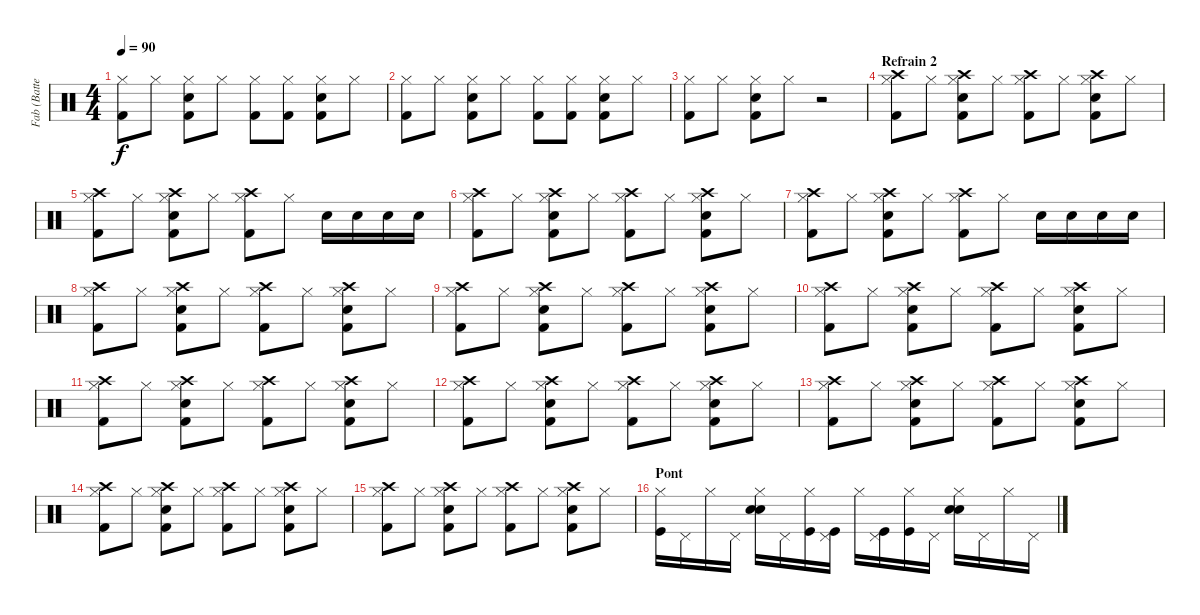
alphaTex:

\track ("Fab (Batterie)" "Fab (Batte") {instrument percussion}
\staff {score}
\articulation defaults
\ts (4 4)
\tempo 90
\clef neutral
\ks c
("Hi-Hat (closed)" "Kick (hit) 2").8{dy f} "Hi-Hat (closed)".8 ("Hi-Hat (closed)" "Snare (hit) 2" "Kick (hit) 2").8 "Hi-Hat (closed)".8 ("Hi-Hat (closed)" "Kick (hit) 2").8 ("Hi-Hat (closed)" "Kick (hit) 2").8 ("Hi-Hat (closed)" "Snare (hit) 2" "Kick (hit) 2").8 "Hi-Hat (closed)".8 |
("Hi-Hat (closed)" "Kick (hit) 2").8 "Hi-Hat (closed)".8 ("Hi-Hat (closed)" "Snare (hit) 2" "Kick (hit) 2").8 "Hi-Hat (closed)".8 ("Hi-Hat (closed)" "Kick (hit) 2").8 ("Hi-Hat (closed)" "Kick (hit) 2").8 ("Hi-Hat (closed)" "Snare (hit) 2" "Kick (hit) 2").8 "Hi-Hat (closed)".8 |
("Hi-Hat (closed)" "Kick (hit) 2").8 "Hi-Hat (closed)".8 ("Hi-Hat (closed)" "Snare (hit) 2" "Kick (hit) 2").8 "Hi-Hat (closed)".8 r.2 |
\section ("" "Refrain 2")
("Crash high (hit)" "Hi-Hat (closed)" "Kick (hit) 2").8 "Hi-Hat (closed)".8 ("Crash high (hit)" "Hi-Hat (closed)" "Snare (hit) 2" "Kick (hit) 2").8 "Hi-Hat (closed)".8 ("Crash high (hit)" "Hi-Hat (closed)" "Kick (hit) 2").8 "Hi-Hat (closed)".8 ("Crash high (hit)" "Hi-Hat (closed)" "Snare (hit) 2" "Kick (hit) 2").8 "Hi-Hat (closed)".8 |
("Crash high (hit)" "Hi-Hat (closed)" "Kick (hit) 2").8 "Hi-Hat (closed)".8 ("Crash high (hit)" "Hi-Hat (closed)" "Snare (hit) 2" "Kick (hit) 2").8 "Hi-Hat (closed)".8 ("Crash high (hit)" "Hi-Hat (closed)" "Kick (hit) 2").8 "Hi-Hat (closed)".8 "Snare (hit) 2".16 "Snare (hit) 2".16 "Snare (hit) 2".16 "Snare (hit) 2".16 |
("Crash high (hit)" "Hi-Hat (closed)" "Kick (hit) 2").8 "Hi-Hat (closed)".8 ("Crash high (hit)" "Hi-Hat (closed)" "Snare (hit) 2" "Kick (hit) 2").8 "Hi-Hat (closed)".8 ("Crash high (hit)" "Hi-Hat (closed)" "Kick (hit) 2").8 "Hi-Hat (closed)".8 ("Crash high (hit)" "Hi-Hat (closed)" "Snare (hit) 2" "Kick (hit) 2").8 "Hi-Hat (closed)".8 |
("Crash high (hit)" "Hi-Hat (closed)" "Kick (hit) 2").8 "Hi-Hat (closed)".8 ("Crash high (hit)" "Hi-Hat (closed)" "Snare (hit) 2" "Kick (hit) 2").8 "Hi-Hat (closed)".8 ("Crash high (hit)" "Hi-Hat (closed)" "Kick (hit) 2").8 "Hi-Hat (closed)".8 "Snare (hit) 2".16 "Snare (hit) 2".16 "Snare (hit) 2".16 "Snare (hit) 2".16 |
("Crash high (hit)" "Hi-Hat (closed)" "Kick (hit) 2").8 "Hi-Hat (closed)".8 ("Crash high (hit)" "Hi-Hat (closed)" "Snare (hit) 2" "Kick (hit) 2").8 "Hi-Hat (closed)".8 ("Crash high (hit)" "Hi-Hat (closed)" "Kick (hit) 2").8 "Hi-Hat (closed)".8 ("Crash high (hit)" "Hi-Hat (closed)" "Snare (hit) 2" "Kick (hit) 2").8 "Hi-Hat (closed)".8 |
("Crash high (hit)" "Hi-Hat (closed)" "Kick (hit) 2").8 "Hi-Hat (closed)".8 ("Crash high (hit)" "Hi-Hat (closed)" "Snare (hit) 2" "Kick (hit) 2").8 "Hi-Hat (closed)".8 ("Crash high (hit)" "Hi-Hat (closed)" "Kick (hit) 2").8 "Hi-Hat (closed)".8 ("Crash high (hit)" "Hi-Hat (closed)" "Snare (hit) 2" "Kick (hit) 2").8 "Hi-Hat (closed)".8 |
("Crash high (hit)" "Hi-Hat (closed)" "Kick (hit) 2").8 "Hi-Hat (closed)".8 ("Crash high (hit)" "Hi-Hat (closed)" "Snare (hit) 2" "Kick (hit) 2").8 "Hi-Hat (closed)".8 ("Crash high (hit)" "Hi-Hat (closed)" "Kick (hit) 2").8 "Hi-Hat (closed)".8 ("Crash high (hit)" "Hi-Hat (closed)" "Snare (hit) 2" "Kick (hit) 2").8 "Hi-Hat (closed)".8 |
("Crash high (hit)" "Hi-Hat (closed)" "Kick (hit) 2").8 "Hi-Hat (closed)".8 ("Crash high (hit)" "Hi-Hat (closed)" "Snare (hit) 2" "Kick (hit) 2").8 "Hi-Hat (closed)".8 ("Crash high (hit)" "Hi-Hat (closed)" "Kick (hit) 2").8 "Hi-Hat (closed)".8 ("Crash high (hit)" "Hi-Hat (closed)" "Snare (hit) 2" "Kick (hit) 2").8 "Hi-Hat (closed)".8 |
("Crash high (hit)" "Hi-Hat (closed)" "Kick (hit) 2").8 "Hi-Hat (closed)".8 ("Crash high (hit)" "Hi-Hat (closed)" "Snare (hit) 2" "Kick (hit) 2").8 "Hi-Hat (closed)".8 ("Crash high (hit)" "Hi-Hat (closed)" "Kick (hit) 2").8 "Hi-Hat (closed)".8 ("Crash high (hit)" "Hi-Hat (closed)" "Snare (hit) 2" "Kick (hit) 2").8 "Hi-Hat (closed)".8 |
("Crash high (hit)" "Hi-Hat (closed)" "Kick (hit) 2").8 "Hi-Hat (closed)".8 ("Crash high (hit)" "Hi-Hat (closed)" "Snare (hit) 2" "Kick (hit) 2").8 "Hi-Hat (closed)".8 ("Crash high (hit)" "Hi-Hat (closed)" "Kick (hit) 2").8 "Hi-Hat (closed)".8 ("Crash high (hit)" "Hi-Hat (closed)" "Snare (hit) 2" "Kick (hit) 2").8 "Hi-Hat (closed)".8 |
("Crash high (hit)" "Hi-Hat (closed)" "Kick (hit) 2").8 "Hi-Hat (closed)".8 ("Crash high (hit)" "Hi-Hat (closed)" "Snare (hit) 2" "Kick (hit) 2").8 "Hi-Hat (closed)".8 ("Crash high (hit)" "Hi-Hat (closed)" "Kick (hit) 2").8 "Hi-Hat (closed)".8 ("Crash high (hit)" "Hi-Hat (closed)" "Snare (hit) 2" "Kick (hit) 2").8 "Hi-Hat (closed)".8 |
("Crash high (hit)" "Hi-Hat (closed)" "Kick (hit) 2").8 "Hi-Hat (closed)".8 ("Crash high (hit)" "Hi-Hat (closed)" "Snare (hit) 2" "Kick (hit) 2").8 "Hi-Hat (closed)".8 ("Crash high (hit)" "Hi-Hat (closed)" "Kick (hit) 2").8 "Hi-Hat (closed)".8 ("Crash high (hit)" "Hi-Hat (closed)" "Snare (hit) 2" "Kick (hit) 2").8 "Hi-Hat (closed)".8 |
\section ("" "Pont")
("Hi-Hat (closed)" "Kick (hit)").16 "Pedal Hi-Hat (hit)".16 "Hi-Hat (closed)".16 "Pedal Hi-Hat (hit)".16 ("Hi-Hat (closed)" "Electric Snare (hit)" "Snare (hit) 2").16 "Pedal Hi-Hat (hit)".16 ("Hi-Hat (closed)" "Kick (hit)").16 ("Pedal Hi-Hat (hit)" "Kick (hit)").16 "Hi-Hat (closed)".16 ("Pedal Hi-Hat (hit)" "Kick (hit)").16 ("Hi-Hat (closed)" "Kick (hit)").16 "Pedal Hi-Hat (hit)".16 ("Hi-Hat (closed)" "Electric Snare (hit)" "Snare (hit) 2").16 "Pedal Hi-Hat (hit)".16 "Hi-Hat (closed)".16 "Pedal Hi-Hat (hit)".16
